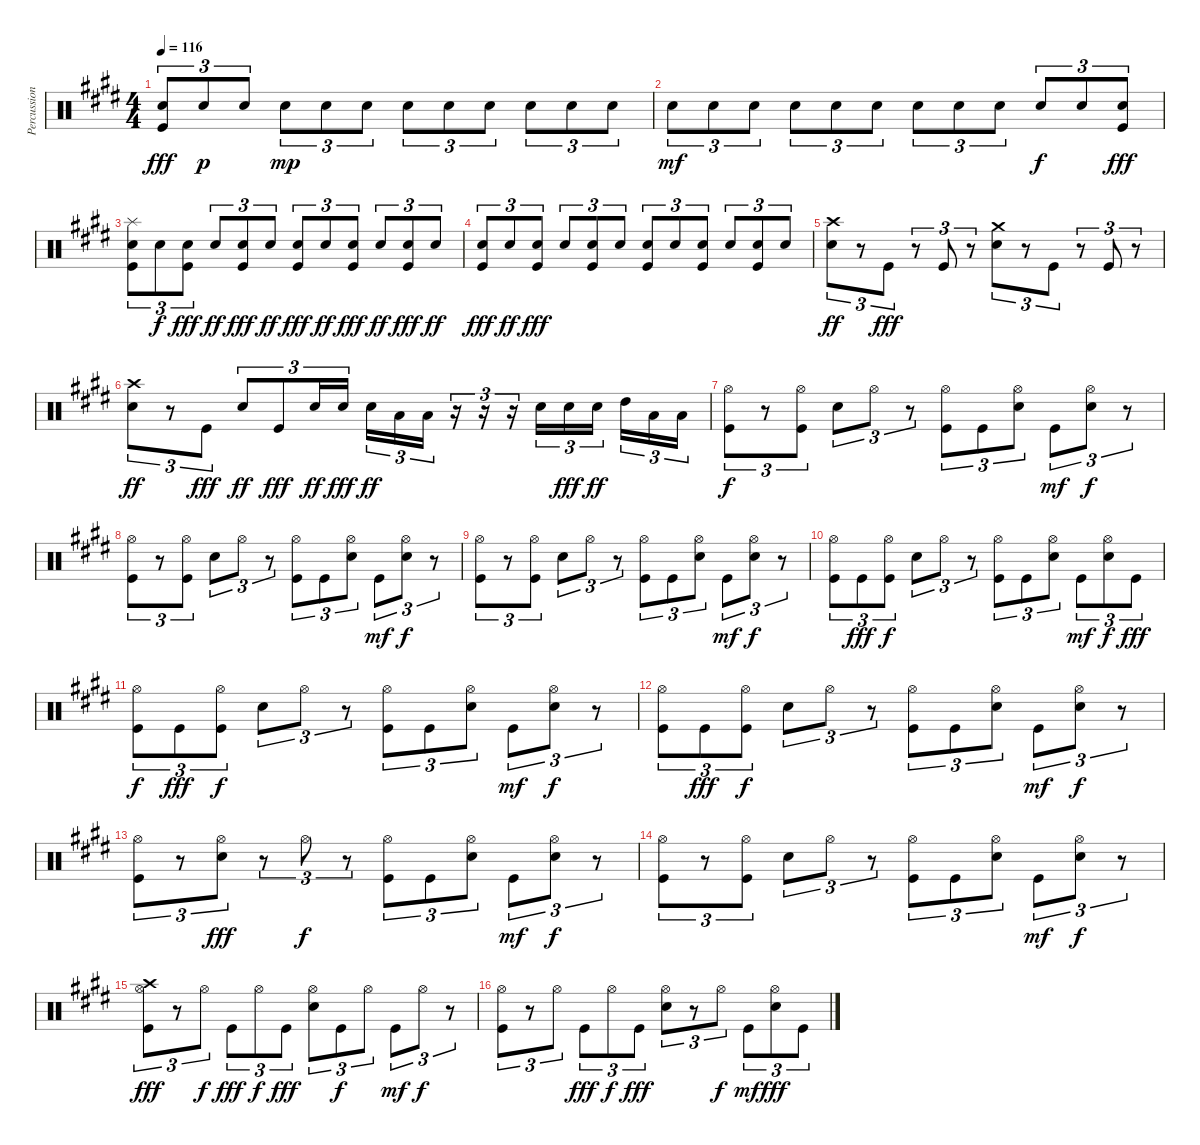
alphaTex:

\track ("Percussion" "Percussion") {instrument percussion}
\staff {score}
\articulation defaults
\ts (4 4)
\tempo 116
\clef neutral
\ks c#minor
("Snare (hit) 2" "Kick (hit)").8{tu (3 2) dy fff} "Snare (hit) 2".8{tu (3 2) dy p} "Snare (hit) 2".8{tu (3 2)} "Snare (hit) 2".8{tu (3 2) dy mp} "Snare (hit) 2".8{tu (3 2)} "Snare (hit) 2".8{tu (3 2)} "Snare (hit) 2".8{tu (3 2)} "Snare (hit) 2".8{tu (3 2)} "Snare (hit) 2".8{tu (3 2)} "Snare (hit) 2".8{tu (3 2)} "Snare (hit) 2".8{tu (3 2)} "Snare (hit) 2".8{tu (3 2)} |
"Snare (hit) 2".8{tu (3 2) dy mf} "Snare (hit) 2".8{tu (3 2)} "Snare (hit) 2".8{tu (3 2)} "Snare (hit) 2".8{tu (3 2)} "Snare (hit) 2".8{tu (3 2)} "Snare (hit) 2".8{tu (3 2)} "Snare (hit) 2".8{tu (3 2)} "Snare (hit) 2".8{tu (3 2)} "Snare (hit) 2".8{tu (3 2)} "Snare (hit) 2".8{tu (3 2) dy f} "Snare (hit) 2".8{tu (3 2)} ("Snare (hit) 2" "Kick (hit)").8{tu (3 2) dy fff} |
("Splash (hit)" "Snare (hit) 2" "Kick (hit)").8{tu (3 2)} "Snare (hit) 2".8{tu (3 2) dy f} ("Snare (hit) 2" "Kick (hit)").8{tu (3 2) dy fff} "Snare (hit) 2".8{tu (3 2) dy ff} ("Snare (hit) 2" "Kick (hit)").8{tu (3 2) dy fff} "Snare (hit) 2".8{tu (3 2) dy ff} ("Snare (hit) 2" "Kick (hit)").8{tu (3 2) dy fff} "Snare (hit) 2".8{tu (3 2) dy ff} ("Snare (hit) 2" "Kick (hit)").8{tu (3 2) dy fff} "Snare (hit) 2".8{tu (3 2) dy ff} ("Snare (hit) 2" "Kick (hit)").8{tu (3 2) dy fff} "Snare (hit) 2".8{tu (3 2) dy ff} |
("Snare (hit) 2" "Kick (hit)").8{tu (3 2) dy fff} "Snare (hit) 2".8{tu (3 2) dy ff} ("Snare (hit) 2" "Kick (hit)").8{tu (3 2) dy fff} "Snare (hit) 2".8{tu (3 2)} ("Snare (hit) 2" "Kick (hit)").8{tu (3 2)} "Snare (hit) 2".8{tu (3 2)} ("Snare (hit) 2" "Kick (hit)").8{tu (3 2)} "Snare (hit) 2".8{tu (3 2)} ("Snare (hit) 2" "Kick (hit)").8{tu (3 2)} "Snare (hit) 2".8{tu (3 2)} ("Snare (hit) 2" "Kick (hit)").8{tu (3 2)} "Snare (hit) 2".8{tu (3 2)} |
("Crash high (hit)" "Snare (hit) 2").8{tu (3 2) dy ff} r.8{tu (3 2)} "Kick (hit)".8{tu (3 2) dy fff} r.8{tu (3 2)} "Kick (hit)".8{tu (3 2)} r.8{tu (3 2)} ("Crash medium (hit)" "Snare (hit) 2").8{tu (3 2)} r.8{tu (3 2)} "Kick (hit)".8{tu (3 2)} r.8{tu (3 2)} "Kick (hit)".8{tu (3 2)} r.8{tu (3 2)} |
("Crash high (hit)" "Snare (hit) 2").8{tu (3 2) dy ff} r.8{tu (3 2)} "Kick (hit)".8{tu (3 2) dy fff} "Snare (hit) 2".8{tu (3 2) dy ff} "Kick (hit)".8{tu (3 2) dy fff} "Snare (hit) 2".16{tu (3 2) dy ff} "Snare (hit) 2".16{tu (3 2) dy fff} "Snare (hit) 2".16{tu (3 2) dy ff} "Low Tom (hit)".16{tu (3 2)} "Low Floor Tom (hit)".16{tu (3 2)} r.16{tu (3 2)} r.16{tu (3 2)} r.16{tu (3 2)} "Snare (hit) 2".16{tu (3 2)} "Snare (hit) 2".16{tu (3 2) dy fff} "Snare (hit) 2".16{tu (3 2) dy ff beam splitsecondary} "High Tom (hit)".16{tu (3 2)} "Low Tom (hit)".16{tu (3 2)} "Low Floor Tom (hit)".16{tu (3 2)} |
("Hi-Hat (open)" "Kick (hit)").8{tu (3 2) dy f} r.8{tu (3 2)} ("Hi-Hat (open)" "Kick (hit)").8{tu (3 2)} "Snare (hit) 2".8{tu (3 2)} "Hi-Hat (open)".8{tu (3 2)} r.8{tu (3 2)} ("Hi-Hat (open)" "Kick (hit)").8{tu (3 2)} "Kick (hit)".8{tu (3 2)} ("Hi-Hat (open)" "Snare (hit) 2").8{tu (3 2)} "Kick (hit)".8{tu (3 2) dy mf} ("Hi-Hat (open)" "Snare (hit) 2").8{tu (3 2) dy f} r.8{tu (3 2)} |
("Hi-Hat (open)" "Kick (hit)").8{tu (3 2)} r.8{tu (3 2)} ("Hi-Hat (open)" "Kick (hit)").8{tu (3 2)} "Snare (hit) 2".8{tu (3 2)} "Hi-Hat (open)".8{tu (3 2)} r.8{tu (3 2)} ("Hi-Hat (open)" "Kick (hit)").8{tu (3 2)} "Kick (hit)".8{tu (3 2)} ("Hi-Hat (open)" "Snare (hit) 2").8{tu (3 2)} "Kick (hit)".8{tu (3 2) dy mf} ("Hi-Hat (open)" "Snare (hit) 2").8{tu (3 2) dy f} r.8{tu (3 2)} |
("Hi-Hat (open)" "Kick (hit)").8{tu (3 2)} r.8{tu (3 2)} ("Hi-Hat (open)" "Kick (hit)").8{tu (3 2)} "Snare (hit) 2".8{tu (3 2)} "Hi-Hat (open)".8{tu (3 2)} r.8{tu (3 2)} ("Hi-Hat (open)" "Kick (hit)").8{tu (3 2)} "Kick (hit)".8{tu (3 2)} ("Hi-Hat (open)" "Snare (hit) 2").8{tu (3 2)} "Kick (hit)".8{tu (3 2) dy mf} ("Hi-Hat (open)" "Snare (hit) 2").8{tu (3 2) dy f} r.8{tu (3 2)} |
("Hi-Hat (open)" "Kick (hit)").8{tu (3 2)} "Kick (hit)".8{tu (3 2) dy fff} ("Hi-Hat (open)" "Kick (hit)").8{tu (3 2) dy f} "Snare (hit) 2".8{tu (3 2)} "Hi-Hat (open)".8{tu (3 2)} r.8{tu (3 2)} ("Hi-Hat (open)" "Kick (hit)").8{tu (3 2)} "Kick (hit)".8{tu (3 2)} ("Hi-Hat (open)" "Snare (hit) 2").8{tu (3 2)} "Kick (hit)".8{tu (3 2) dy mf} ("Hi-Hat (open)" "Snare (hit) 2").8{tu (3 2) dy f} "Kick (hit)".8{tu (3 2) dy fff} |
("Hi-Hat (open)" "Kick (hit)").8{tu (3 2) dy f} "Kick (hit)".8{tu (3 2) dy fff} ("Hi-Hat (open)" "Kick (hit)").8{tu (3 2) dy f} "Snare (hit) 2".8{tu (3 2)} "Hi-Hat (open)".8{tu (3 2)} r.8{tu (3 2)} ("Hi-Hat (open)" "Kick (hit)").8{tu (3 2)} "Kick (hit)".8{tu (3 2)} ("Hi-Hat (open)" "Snare (hit) 2").8{tu (3 2)} "Kick (hit)".8{tu (3 2) dy mf} ("Hi-Hat (open)" "Snare (hit) 2").8{tu (3 2) dy f} r.8{tu (3 2)} |
("Hi-Hat (open)" "Kick (hit)").8{tu (3 2)} "Kick (hit)".8{tu (3 2) dy fff} ("Hi-Hat (open)" "Kick (hit)").8{tu (3 2) dy f} "Snare (hit) 2".8{tu (3 2)} "Hi-Hat (open)".8{tu (3 2)} r.8{tu (3 2)} ("Hi-Hat (open)" "Kick (hit)").8{tu (3 2)} "Kick (hit)".8{tu (3 2)} ("Hi-Hat (open)" "Snare (hit) 2").8{tu (3 2)} "Kick (hit)".8{tu (3 2) dy mf} ("Hi-Hat (open)" "Snare (hit) 2").8{tu (3 2) dy f} r.8{tu (3 2)} |
("Hi-Hat (open)" "Kick (hit)").8{tu (3 2)} r.8{tu (3 2)} ("Hi-Hat (open)" "Snare (hit) 2").8{tu (3 2) dy fff} r.8{tu (3 2)} "Hi-Hat (open)".8{tu (3 2) dy f} r.8{tu (3 2)} ("Hi-Hat (open)" "Kick (hit)").8{tu (3 2)} "Kick (hit)".8{tu (3 2)} ("Hi-Hat (open)" "Snare (hit) 2").8{tu (3 2)} "Kick (hit)".8{tu (3 2) dy mf} ("Hi-Hat (open)" "Snare (hit) 2").8{tu (3 2) dy f} r.8{tu (3 2)} |
("Hi-Hat (open)" "Kick (hit)").8{tu (3 2)} r.8{tu (3 2)} ("Hi-Hat (open)" "Kick (hit)").8{tu (3 2)} "Snare (hit) 2".8{tu (3 2)} "Hi-Hat (open)".8{tu (3 2)} r.8{tu (3 2)} ("Hi-Hat (open)" "Kick (hit)").8{tu (3 2)} "Kick (hit)".8{tu (3 2)} ("Hi-Hat (open)" "Snare (hit) 2").8{tu (3 2)} "Kick (hit)".8{tu (3 2) dy mf} ("Hi-Hat (open)" "Snare (hit) 2").8{tu (3 2) dy f} r.8{tu (3 2)} |
("Crash high (hit)" "Hi-Hat (open)" "Kick (hit)").8{tu (3 2) dy fff} r.8{tu (3 2)} "Hi-Hat (open)".8{tu (3 2) dy f} "Kick (hit)".8{tu (3 2) dy fff} "Hi-Hat (open)".8{tu (3 2) dy f} "Kick (hit)".8{tu (3 2) dy fff} ("Hi-Hat (open)" "Snare (hit) 2").8{tu (3 2)} "Kick (hit)".8{tu (3 2) dy f} "Hi-Hat (open)".8{tu (3 2)} "Kick (hit)".8{tu (3 2) dy mf} "Hi-Hat (open)".8{tu (3 2) dy f} r.8{tu (3 2)} |
("Hi-Hat (open)" "Kick (hit)").8{tu (3 2)} r.8{tu (3 2)} "Hi-Hat (open)".8{tu (3 2)} "Kick (hit)".8{tu (3 2) dy fff} "Hi-Hat (open)".8{tu (3 2) dy f} "Kick (hit)".8{tu (3 2) dy fff} ("Hi-Hat (open)" "Snare (hit) 2").8{tu (3 2)} r.8{tu (3 2)} "Hi-Hat (open)".8{tu (3 2) dy f} "Kick (hit)".8{tu (3 2) dy mf} ("Hi-Hat (open)" "Snare (hit) 2").8{tu (3 2) dy fff} "Kick (hit)".8{tu (3 2)}
